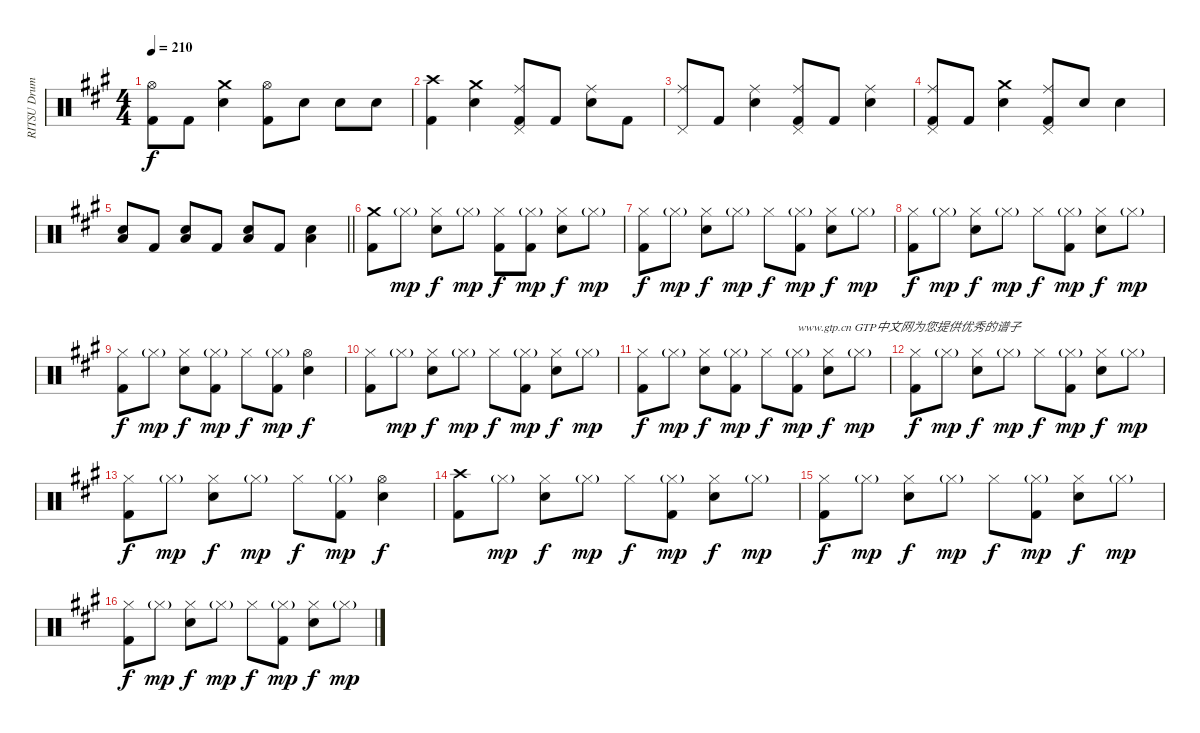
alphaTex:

\track ("RITSU Drums" "RITSU Drum") {instrument percussion}
\staff {score}
\articulation defaults
\ts (4 4)
\tempo 210
\clef neutral
\ks a
("Hi-Hat (open)" "Kick (hit) 2").8{dy f} "Kick (hit) 2".8 ("Crash medium (hit)" "Electric Snare (hit)").4 ("Hi-Hat (open)" "Kick (hit) 2").8 "Electric Snare (hit)".8 "Electric Snare (hit)".8 "Electric Snare (hit)".8 |
("Crash high (hit)" "Kick (hit) 2").4 ("Crash medium (hit)" "Electric Snare (hit)").4 ("Ride (middle)" "Pedal Hi-Hat (hit)" "Kick (hit) 2").8 "Kick (hit) 2".8 ("Ride (middle)" "Electric Snare (hit)").8 "Kick (hit) 2".8 |
("Ride (middle)" "Pedal Hi-Hat (hit)").8 "Kick (hit) 2".8 ("Ride (middle)" "Electric Snare (hit)").4 ("Ride (middle)" "Pedal Hi-Hat (hit)" "Kick (hit) 2").8 "Kick (hit) 2".8 ("Ride (middle)" "Electric Snare (hit)").4 |
("Ride (middle)" "Pedal Hi-Hat (hit)" "Kick (hit) 2").8 "Kick (hit) 2".8 ("Crash medium (hit)" "Electric Snare (hit)").4 ("Ride (middle)" "Pedal Hi-Hat (hit)" "Kick (hit) 2").8 "Electric Snare (hit)".8 "Electric Snare (hit)".4 |
\barLineRight lightlight
("Electric Snare (hit)" "Low Floor Tom (hit)").8 "Kick (hit) 2".8 ("Electric Snare (hit)" "Low Floor Tom (hit)").8 "Kick (hit) 2".8 ("Electric Snare (hit)" "Low Floor Tom (hit)").8 "Kick (hit) 2".8 ("Electric Snare (hit)" "Low Floor Tom (hit)").4 |
("Crash medium (hit)" "Kick (hit) 2").8 "Hi-Hat (closed)"{g}.8{dy mp} ("Hi-Hat (closed)" "Electric Snare (hit)").8{dy f} "Hi-Hat (closed)"{g}.8{dy mp} ("Hi-Hat (closed)" "Kick (hit) 2").8{dy f} ("Hi-Hat (closed)"{g} "Kick (hit) 2").8{dy mp} ("Hi-Hat (closed)" "Electric Snare (hit)").8{dy f} "Hi-Hat (closed)"{g}.8{dy mp} |
("Hi-Hat (closed)" "Kick (hit) 2").8{dy f} "Hi-Hat (closed)"{g}.8{dy mp} ("Hi-Hat (closed)" "Electric Snare (hit)").8{dy f} "Hi-Hat (closed)"{g}.8{dy mp} "Hi-Hat (closed)".8{dy f} ("Hi-Hat (closed)"{g} "Kick (hit) 2").8{dy mp} ("Hi-Hat (closed)" "Electric Snare (hit)").8{dy f} "Hi-Hat (closed)"{g}.8{dy mp} |
("Hi-Hat (closed)" "Kick (hit) 2").8{dy f} "Hi-Hat (closed)"{g}.8{dy mp} ("Hi-Hat (closed)" "Electric Snare (hit)").8{dy f} "Hi-Hat (closed)"{g}.8{dy mp} "Hi-Hat (closed)".8{dy f} ("Hi-Hat (closed)"{g} "Kick (hit) 2").8{dy mp} ("Hi-Hat (closed)" "Electric Snare (hit)").8{dy f} "Hi-Hat (closed)"{g}.8{dy mp} |
("Hi-Hat (closed)" "Kick (hit) 2").8{dy f} "Hi-Hat (closed)"{g}.8{dy mp} ("Hi-Hat (closed)" "Electric Snare (hit)").8{dy f} ("Hi-Hat (closed)"{g} "Kick (hit) 2").8{dy mp} "Hi-Hat (closed)".8{dy f} ("Hi-Hat (closed)"{g} "Kick (hit) 2").8{dy mp} ("Hi-Hat (open)" "Electric Snare (hit)").4{dy f} |
("Hi-Hat (closed)" "Kick (hit) 2").8 "Hi-Hat (closed)"{g}.8{dy mp} ("Hi-Hat (closed)" "Electric Snare (hit)").8{dy f} "Hi-Hat (closed)"{g}.8{dy mp} "Hi-Hat (closed)".8{dy f} ("Hi-Hat (closed)"{g} "Kick (hit) 2").8{dy mp} ("Hi-Hat (closed)" "Electric Snare (hit)").8{dy f} "Hi-Hat (closed)"{g}.8{dy mp} |
("Hi-Hat (closed)" "Kick (hit) 2").8{dy f} "Hi-Hat (closed)"{g}.8{dy mp} ("Hi-Hat (closed)" "Electric Snare (hit)").8{dy f} ("Hi-Hat (closed)"{g} "Kick (hit) 2").8{dy mp} "Hi-Hat (closed)".8{dy f} ("Hi-Hat (closed)"{g} "Kick (hit) 2").8{txt "www.gtp.cn GTP中文网为您提供优秀的谱子" dy mp} ("Hi-Hat (closed)" "Electric Snare (hit)").8{dy f} "Hi-Hat (closed)"{g}.8{dy mp} |
("Hi-Hat (closed)" "Kick (hit) 2").8{dy f} "Hi-Hat (closed)"{g}.8{dy mp} ("Hi-Hat (closed)" "Electric Snare (hit)").8{dy f} "Hi-Hat (closed)"{g}.8{dy mp} "Hi-Hat (closed)".8{dy f} ("Hi-Hat (closed)"{g} "Kick (hit) 2").8{dy mp} ("Hi-Hat (closed)" "Electric Snare (hit)").8{dy f} "Hi-Hat (closed)"{g}.8{dy mp} |
("Hi-Hat (closed)" "Kick (hit) 2").8{dy f} "Hi-Hat (closed)"{g}.8{dy mp} ("Hi-Hat (closed)" "Electric Snare (hit)").8{dy f} "Hi-Hat (closed)"{g}.8{dy mp} "Hi-Hat (closed)".8{dy f} ("Hi-Hat (closed)"{g} "Kick (hit) 2").8{dy mp} ("Hi-Hat (open)" "Electric Snare (hit)").4{dy f} |
("Crash high (hit)" "Kick (hit) 2").8 "Hi-Hat (closed)"{g}.8{dy mp} ("Hi-Hat (closed)" "Electric Snare (hit)").8{dy f} "Hi-Hat (closed)"{g}.8{dy mp} "Hi-Hat (closed)".8{dy f} ("Hi-Hat (closed)"{g} "Kick (hit) 2").8{dy mp} ("Hi-Hat (closed)" "Electric Snare (hit)").8{dy f} "Hi-Hat (closed)"{g}.8{dy mp} |
("Hi-Hat (closed)" "Kick (hit) 2").8{dy f} "Hi-Hat (closed)"{g}.8{dy mp} ("Hi-Hat (closed)" "Electric Snare (hit)").8{dy f} "Hi-Hat (closed)"{g}.8{dy mp} "Hi-Hat (closed)".8{dy f} ("Hi-Hat (closed)"{g} "Kick (hit) 2").8{dy mp} ("Hi-Hat (closed)" "Electric Snare (hit)").8{dy f} "Hi-Hat (closed)"{g}.8{dy mp} |
("Hi-Hat (closed)" "Kick (hit) 2").8{dy f} "Hi-Hat (closed)"{g}.8{dy mp} ("Hi-Hat (closed)" "Electric Snare (hit)").8{dy f} "Hi-Hat (closed)"{g}.8{dy mp} "Hi-Hat (closed)".8{dy f} ("Hi-Hat (closed)"{g} "Kick (hit) 2").8{dy mp} ("Hi-Hat (closed)" "Electric Snare (hit)").8{dy f} "Hi-Hat (closed)"{g}.8{dy mp}
